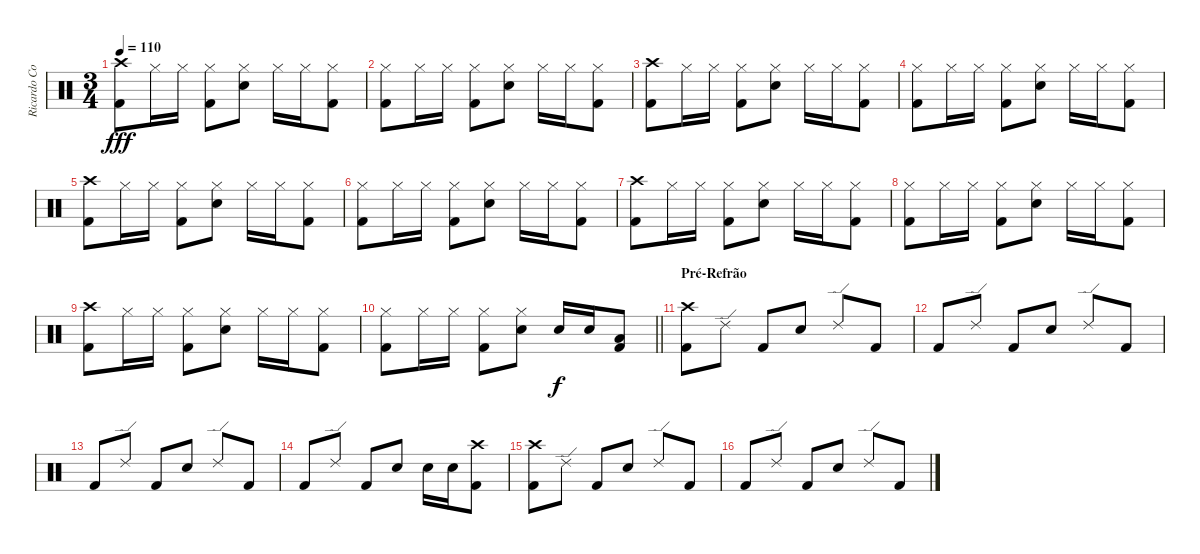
\track ("Ricardo Confessori" "Ricardo Co") {instrument percussion}
\staff {score}
\articulation defaults
\ts (3 4)
\tempo 110
\clef neutral
\ks c
("Crash high (hit)" "Kick (hit) 2").8{dy fff} "Hi-Hat (closed)".16 "Hi-Hat (closed)".16 ("Hi-Hat (closed)" "Kick (hit) 2").8 ("Hi-Hat (closed)" "Electric Snare (hit)").8 "Hi-Hat (closed)".16 "Hi-Hat (closed)".16 ("Hi-Hat (closed)" "Kick (hit) 2").8 |
("Hi-Hat (closed)" "Kick (hit) 2").8 "Hi-Hat (closed)".16 "Hi-Hat (closed)".16 ("Hi-Hat (closed)" "Kick (hit) 2").8 ("Hi-Hat (closed)" "Electric Snare (hit)").8 "Hi-Hat (closed)".16 "Hi-Hat (closed)".16 ("Hi-Hat (closed)" "Kick (hit) 2").8 |
("Crash high (hit)" "Kick (hit) 2").8 "Hi-Hat (closed)".16 "Hi-Hat (closed)".16 ("Hi-Hat (closed)" "Kick (hit) 2").8 ("Hi-Hat (closed)" "Electric Snare (hit)").8 "Hi-Hat (closed)".16 "Hi-Hat (closed)".16 ("Hi-Hat (closed)" "Kick (hit) 2").8 |
("Hi-Hat (closed)" "Kick (hit) 2").8 "Hi-Hat (closed)".16 "Hi-Hat (closed)".16 ("Hi-Hat (closed)" "Kick (hit) 2").8 ("Hi-Hat (closed)" "Electric Snare (hit)").8 "Hi-Hat (closed)".16 "Hi-Hat (closed)".16 ("Hi-Hat (closed)" "Kick (hit) 2").8 |
("Crash high (hit)" "Kick (hit) 2").8 "Hi-Hat (closed)".16 "Hi-Hat (closed)".16 ("Hi-Hat (closed)" "Kick (hit) 2").8 ("Hi-Hat (closed)" "Electric Snare (hit)").8 "Hi-Hat (closed)".16 "Hi-Hat (closed)".16 ("Hi-Hat (closed)" "Kick (hit) 2").8 |
("Hi-Hat (closed)" "Kick (hit) 2").8 "Hi-Hat (closed)".16 "Hi-Hat (closed)".16 ("Hi-Hat (closed)" "Kick (hit) 2").8 ("Hi-Hat (closed)" "Electric Snare (hit)").8 "Hi-Hat (closed)".16 "Hi-Hat (closed)".16 ("Hi-Hat (closed)" "Kick (hit) 2").8 |
("Crash high (hit)" "Kick (hit) 2").8 "Hi-Hat (closed)".16 "Hi-Hat (closed)".16 ("Hi-Hat (closed)" "Kick (hit) 2").8 ("Hi-Hat (closed)" "Electric Snare (hit)").8 "Hi-Hat (closed)".16 "Hi-Hat (closed)".16 ("Hi-Hat (closed)" "Kick (hit) 2").8 |
("Hi-Hat (closed)" "Kick (hit) 2").8 "Hi-Hat (closed)".16 "Hi-Hat (closed)".16 ("Hi-Hat (closed)" "Kick (hit) 2").8 ("Hi-Hat (closed)" "Electric Snare (hit)").8 "Hi-Hat (closed)".16 "Hi-Hat (closed)".16 ("Hi-Hat (closed)" "Kick (hit) 2").8 |
("Crash high (hit)" "Kick (hit) 2").8 "Hi-Hat (closed)".16 "Hi-Hat (closed)".16 ("Hi-Hat (closed)" "Kick (hit) 2").8 ("Hi-Hat (closed)" "Electric Snare (hit)").8 "Hi-Hat (closed)".16 "Hi-Hat (closed)".16 ("Hi-Hat (closed)" "Kick (hit) 2").8 |
\barLineRight lightlight
("Hi-Hat (closed)" "Kick (hit) 2").8 "Hi-Hat (closed)".16 "Hi-Hat (closed)".16 ("Hi-Hat (closed)" "Kick (hit) 2").8 ("Hi-Hat (closed)" "Electric Snare (hit)").8 "Electric Snare (hit)".16{dy f} "Electric Snare (hit)".16 ("Low Tom (hit)" "Kick (hit) 2").8 |
\section ("" "Pré-Refrão")
("Crash high (hit)" "Kick (hit) 2").8 "Ride (edge) 2".8 "Kick (hit) 2".8 "Electric Snare (hit)".8 "Ride (edge) 2".8 "Kick (hit) 2".8 |
"Kick (hit) 2".8 "Ride (edge) 2".8 "Kick (hit) 2".8 "Electric Snare (hit)".8 "Ride (edge) 2".8 "Kick (hit) 2".8 |
"Kick (hit) 2".8 "Ride (edge) 2".8 "Kick (hit) 2".8 "Electric Snare (hit)".8 "Ride (edge) 2".8 "Kick (hit) 2".8 |
"Kick (hit) 2".8 "Ride (edge) 2".8 "Kick (hit) 2".8 "Electric Snare (hit)".8 "Electric Snare (hit)".16 "Electric Snare (hit)".16 ("Crash high (hit)" "Kick (hit) 2").8 |
("Crash high (hit)" "Kick (hit) 2").8 "Ride (edge) 2".8 "Kick (hit) 2".8 "Electric Snare (hit)".8 "Ride (edge) 2".8 "Kick (hit) 2".8 |
"Kick (hit) 2".8 "Ride (edge) 2".8 "Kick (hit) 2".8 "Electric Snare (hit)".8 "Ride (edge) 2".8 "Kick (hit) 2".8
